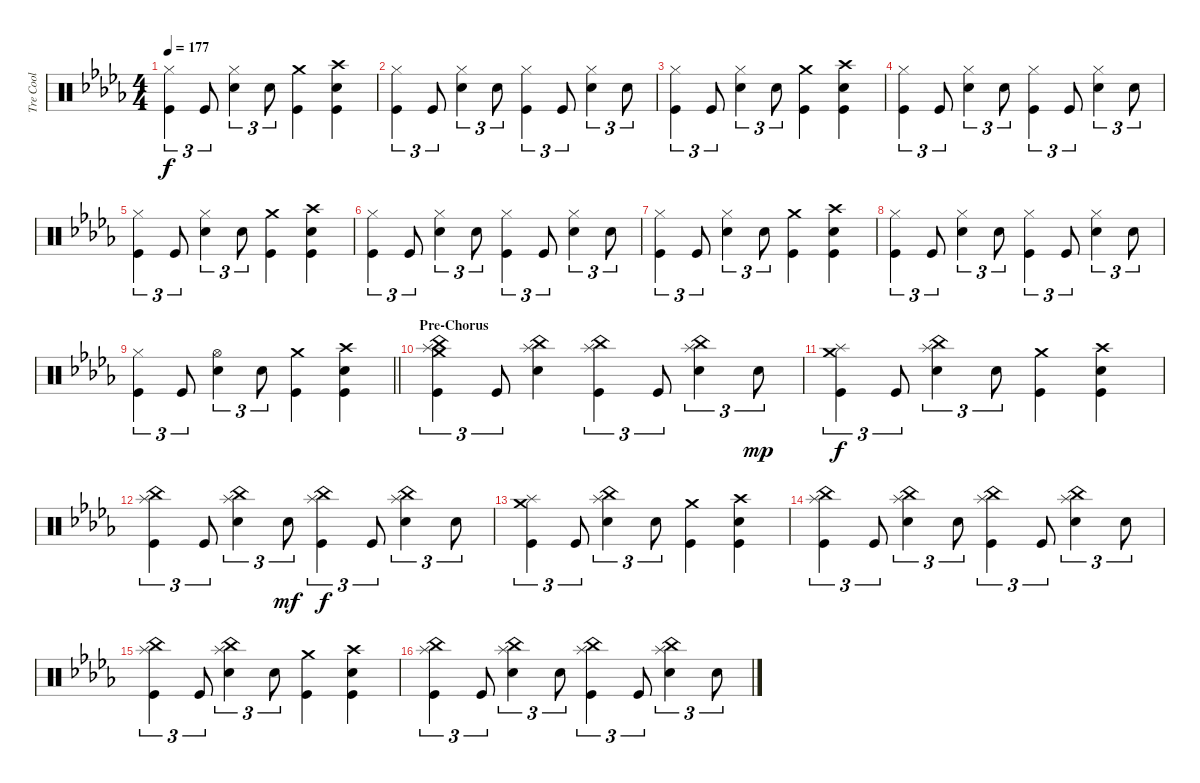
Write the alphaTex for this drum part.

\track ("Tre Cool" "Tre Cool") {instrument percussion}
\staff {score}
\articulation defaults
\ts (4 4)
\tempo 177
\clef neutral
\ks db
("Hi-Hat (closed)" "Kick (hit)").4{tu (3 2) dy f} "Kick (hit)".8{tu (3 2)} ("Hi-Hat (closed)" "Electric Snare (hit)").4{tu (3 2)} "Electric Snare (hit)".8{tu (3 2)} ("Crash medium (hit)" "Kick (hit)").4 ("Crash high (hit)" "Electric Snare (hit)" "Kick (hit)").4 |
("Hi-Hat (closed)" "Kick (hit)").4{tu (3 2)} "Kick (hit)".8{tu (3 2)} ("Hi-Hat (closed)" "Electric Snare (hit)").4{tu (3 2)} "Electric Snare (hit)".8{tu (3 2)} ("Hi-Hat (closed)" "Kick (hit)").4{tu (3 2)} "Kick (hit)".8{tu (3 2)} ("Hi-Hat (closed)" "Electric Snare (hit)").4{tu (3 2)} "Electric Snare (hit)".8{tu (3 2)} |
("Hi-Hat (closed)" "Kick (hit)").4{tu (3 2)} "Kick (hit)".8{tu (3 2)} ("Hi-Hat (closed)" "Electric Snare (hit)").4{tu (3 2)} "Electric Snare (hit)".8{tu (3 2)} ("Crash medium (hit)" "Kick (hit)").4 ("Crash high (hit)" "Electric Snare (hit)" "Kick (hit)").4 |
("Hi-Hat (closed)" "Kick (hit)").4{tu (3 2)} "Kick (hit)".8{tu (3 2)} ("Hi-Hat (closed)" "Electric Snare (hit)").4{tu (3 2)} "Electric Snare (hit)".8{tu (3 2)} ("Hi-Hat (closed)" "Kick (hit)").4{tu (3 2)} "Kick (hit)".8{tu (3 2)} ("Hi-Hat (closed)" "Electric Snare (hit)").4{tu (3 2)} "Electric Snare (hit)".8{tu (3 2)} |
("Hi-Hat (closed)" "Kick (hit)").4{tu (3 2)} "Kick (hit)".8{tu (3 2)} ("Hi-Hat (closed)" "Electric Snare (hit)").4{tu (3 2)} "Electric Snare (hit)".8{tu (3 2)} ("Crash medium (hit)" "Kick (hit)").4 ("Crash high (hit)" "Electric Snare (hit)" "Kick (hit)").4 |
("Hi-Hat (closed)" "Kick (hit)").4{tu (3 2)} "Kick (hit)".8{tu (3 2)} ("Hi-Hat (closed)" "Electric Snare (hit)").4{tu (3 2)} "Electric Snare (hit)".8{tu (3 2)} ("Hi-Hat (closed)" "Kick (hit)").4{tu (3 2)} "Kick (hit)".8{tu (3 2)} ("Hi-Hat (closed)" "Electric Snare (hit)").4{tu (3 2)} "Electric Snare (hit)".8{tu (3 2)} |
("Hi-Hat (closed)" "Kick (hit)").4{tu (3 2)} "Kick (hit)".8{tu (3 2)} ("Hi-Hat (closed)" "Electric Snare (hit)").4{tu (3 2)} "Electric Snare (hit)".8{tu (3 2)} ("Crash medium (hit)" "Kick (hit)").4 ("Crash high (hit)" "Electric Snare (hit)" "Kick (hit)").4 |
("Hi-Hat (closed)" "Kick (hit)").4{tu (3 2)} "Kick (hit)".8{tu (3 2)} ("Hi-Hat (closed)" "Electric Snare (hit)").4{tu (3 2)} "Electric Snare (hit)".8{tu (3 2)} ("Hi-Hat (closed)" "Kick (hit)").4{tu (3 2)} "Kick (hit)".8{tu (3 2)} ("Hi-Hat (closed)" "Electric Snare (hit)").4{tu (3 2)} "Electric Snare (hit)".8{tu (3 2)} |
\barLineRight lightlight
("Hi-Hat (closed)" "Kick (hit)").4{tu (3 2)} "Kick (hit)".8{tu (3 2)} ("Hi-Hat (open)" "Electric Snare (hit)").4{tu (3 2)} "Electric Snare (hit)".8{tu (3 2)} ("Crash medium (hit)" "Kick (hit)").4 ("Crash high (hit)" "Electric Snare (hit)" "Kick (hit)").4 |
\section ("" "Pre-Chorus")
("China (hit)" "Splash (hit)" "Crash medium (hit)" "Kick (hit)").4{tu (3 2)} "Kick (hit)".8{tu (3 2)} ("China (hit)" "Splash (hit)" "Electric Snare (hit)").4 ("China (hit)" "Splash (hit)" "Kick (hit)").4{tu (3 2)} "Kick (hit)".8{tu (3 2)} ("China (hit)" "Splash (hit)" "Electric Snare (hit)").4{tu (3 2)} "Electric Snare (hit)".8{tu (3 2) dy mp} |
("Crash medium (hit)" "Splash (hit)" "Kick (hit)").4{tu (3 2) dy f} "Kick (hit)".8{tu (3 2)} ("China (hit)" "Splash (hit)" "Electric Snare (hit)").4{tu (3 2)} "Electric Snare (hit)".8{tu (3 2)} ("Crash medium (hit)" "Kick (hit)").4 ("Crash high (hit)" "Electric Snare (hit)" "Kick (hit)").4 |
("China (hit)" "Splash (hit)" "Kick (hit)").4{tu (3 2)} "Kick (hit)".8{tu (3 2)} ("China (hit)" "Splash (hit)" "Electric Snare (hit)").4{tu (3 2)} "Electric Snare (hit)".8{tu (3 2) dy mf} ("China (hit)" "Splash (hit)" "Kick (hit)").4{tu (3 2) dy f} "Kick (hit)".8{tu (3 2)} ("China (hit)" "Splash (hit)" "Electric Snare (hit)").4{tu (3 2)} "Electric Snare (hit)".8{tu (3 2)} |
("Crash medium (hit)" "Splash (hit)" "Kick (hit)").4{tu (3 2)} "Kick (hit)".8{tu (3 2)} ("China (hit)" "Splash (hit)" "Electric Snare (hit)").4{tu (3 2)} "Electric Snare (hit)".8{tu (3 2)} ("Crash medium (hit)" "Kick (hit)").4 ("Crash high (hit)" "Electric Snare (hit)" "Kick (hit)").4 |
("China (hit)" "Splash (hit)" "Kick (hit)").4{tu (3 2)} "Kick (hit)".8{tu (3 2)} ("China (hit)" "Splash (hit)" "Electric Snare (hit)").4{tu (3 2)} "Electric Snare (hit)".8{tu (3 2)} ("China (hit)" "Splash (hit)" "Kick (hit)").4{tu (3 2)} "Kick (hit)".8{tu (3 2)} ("China (hit)" "Splash (hit)" "Electric Snare (hit)").4{tu (3 2)} "Electric Snare (hit)".8{tu (3 2)} |
("China (hit)" "Splash (hit)" "Kick (hit)").4{tu (3 2)} "Kick (hit)".8{tu (3 2)} ("China (hit)" "Splash (hit)" "Electric Snare (hit)").4{tu (3 2)} "Electric Snare (hit)".8{tu (3 2)} ("Crash medium (hit)" "Kick (hit)").4 ("Crash high (hit)" "Electric Snare (hit)" "Kick (hit)").4 |
("China (hit)" "Splash (hit)" "Kick (hit)").4{tu (3 2)} "Kick (hit)".8{tu (3 2)} ("China (hit)" "Splash (hit)" "Electric Snare (hit)").4{tu (3 2)} "Electric Snare (hit)".8{tu (3 2)} ("China (hit)" "Splash (hit)" "Kick (hit)").4{tu (3 2)} "Kick (hit)".8{tu (3 2)} ("China (hit)" "Splash (hit)" "Electric Snare (hit)").4{tu (3 2)} "Electric Snare (hit)".8{tu (3 2)}
